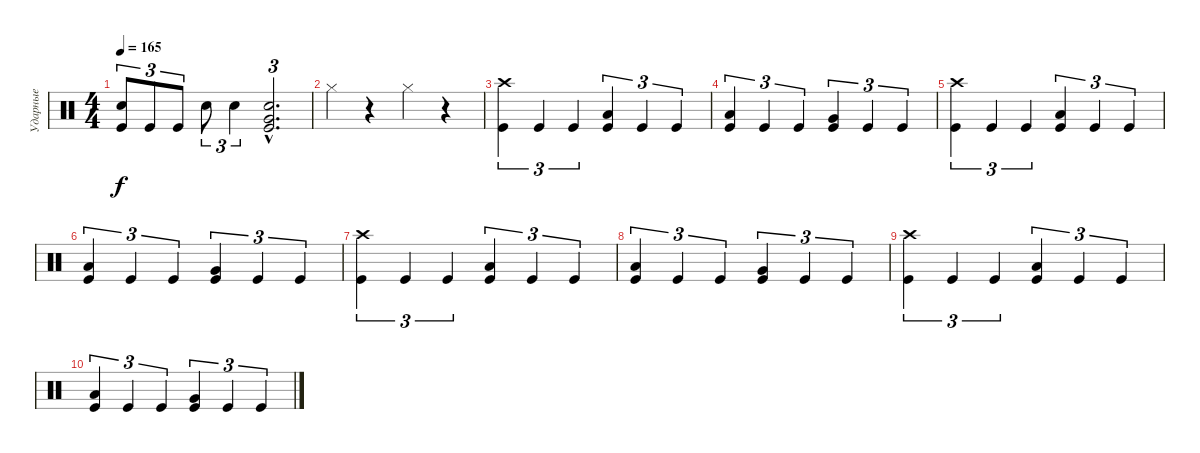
\track ("Ударные" "Ударные") {instrument percussion}
\staff {score}
\articulation defaults
\ts (4 4)
\tempo 165
\clef neutral
\ks c
("Electric Snare (hit)" "Kick (hit)").8{tu (3 2) dy f} "Kick (hit)".8{tu (3 2)} "Kick (hit)".8{tu (3 2)} "Electric Snare (hit)".8{tu (3 2)} "Electric Snare (hit)".4{tu (3 2)} ("Very Low Tom (hit)"{hac} "Electric Snare (hit)"{hac} "Kick (hit)"{hac}).2{d tu (3 2)} |
"Hi-Hat (closed)".4 r.4 "Hi-Hat (closed)".4 r.4 |
("Crash high (hit)" "Kick (hit)").4{tu (3 2)} "Kick (hit)".4{tu (3 2)} "Kick (hit)".4{tu (3 2)} ("Low Tom (hit)" "Kick (hit)").4{tu (3 2)} "Kick (hit)".4{tu (3 2)} "Kick (hit)".4{tu (3 2)} |
("Low Tom (hit)" "Kick (hit)").4{tu (3 2)} "Kick (hit)".4{tu (3 2)} "Kick (hit)".4{tu (3 2)} ("Very Low Tom (hit)" "Kick (hit)").4{tu (3 2)} "Kick (hit)".4{tu (3 2)} "Kick (hit)".4{tu (3 2)} |
("Crash high (hit)" "Kick (hit)").4{tu (3 2)} "Kick (hit)".4{tu (3 2)} "Kick (hit)".4{tu (3 2)} ("Low Tom (hit)" "Kick (hit)").4{tu (3 2)} "Kick (hit)".4{tu (3 2)} "Kick (hit)".4{tu (3 2)} |
("Low Tom (hit)" "Kick (hit)").4{tu (3 2)} "Kick (hit)".4{tu (3 2)} "Kick (hit)".4{tu (3 2)} ("Very Low Tom (hit)" "Kick (hit)").4{tu (3 2)} "Kick (hit)".4{tu (3 2)} "Kick (hit)".4{tu (3 2)} |
("Crash high (hit)" "Kick (hit)").4{tu (3 2)} "Kick (hit)".4{tu (3 2)} "Kick (hit)".4{tu (3 2)} ("Low Tom (hit)" "Kick (hit)").4{tu (3 2)} "Kick (hit)".4{tu (3 2)} "Kick (hit)".4{tu (3 2)} |
("Low Tom (hit)" "Kick (hit)").4{tu (3 2)} "Kick (hit)".4{tu (3 2)} "Kick (hit)".4{tu (3 2)} ("Very Low Tom (hit)" "Kick (hit)").4{tu (3 2)} "Kick (hit)".4{tu (3 2)} "Kick (hit)".4{tu (3 2)} |
("Crash high (hit)" "Kick (hit)").4{tu (3 2)} "Kick (hit)".4{tu (3 2)} "Kick (hit)".4{tu (3 2)} ("Low Tom (hit)" "Kick (hit)").4{tu (3 2)} "Kick (hit)".4{tu (3 2)} "Kick (hit)".4{tu (3 2)} |
("Low Tom (hit)" "Kick (hit)").4{tu (3 2)} "Kick (hit)".4{tu (3 2)} "Kick (hit)".4{tu (3 2)} ("Very Low Tom (hit)" "Kick (hit)").4{tu (3 2)} "Kick (hit)".4{tu (3 2)} "Kick (hit)".4{tu (3 2)}
